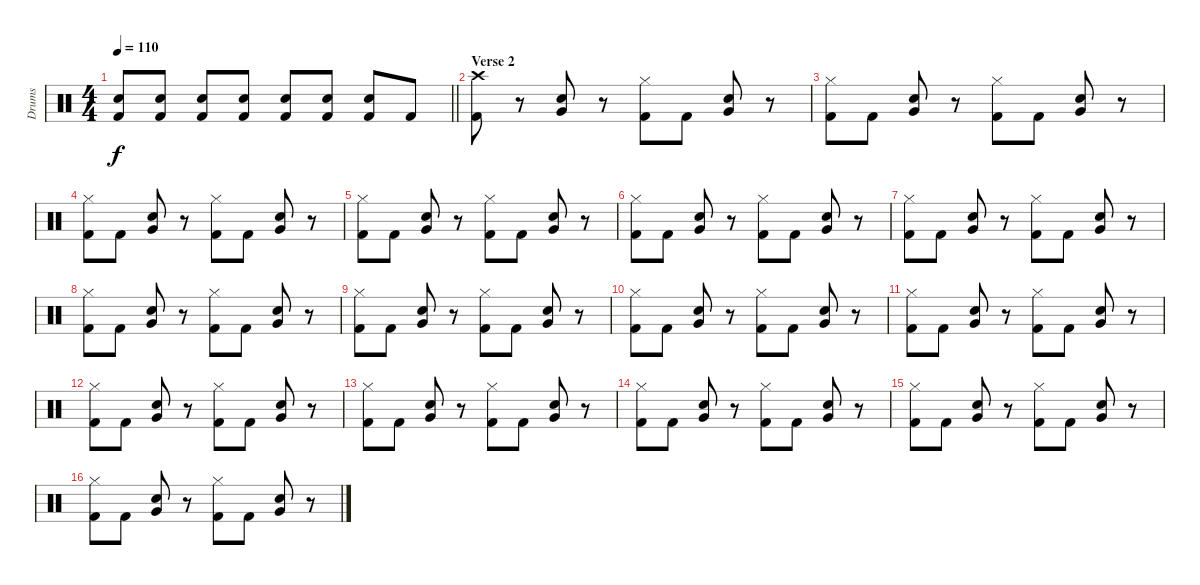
\track ("Drums" "Drums") {instrument percussion}
\staff {score}
\articulation defaults
\ts (4 4)
\tempo 110
\clef neutral
\barLineRight lightlight
\ks c
("Snare (hit) 2" "Kick (hit) 2").8{dy f volume 5} ("Snare (hit) 2" "Kick (hit) 2").8{volume 12} ("Snare (hit) 2" "Kick (hit) 2").8 ("Snare (hit) 2" "Kick (hit) 2").8 ("Snare (hit) 2" "Kick (hit) 2").8 ("Snare (hit) 2" "Kick (hit) 2").8 ("Snare (hit) 2" "Kick (hit) 2").8 "Kick (hit) 2".8 |
\section ("" "Verse 2")
("Crash high (hit)" "Kick (hit) 2").8{volume 12} r.8 ("Snare (hit) 2" "Very Low Tom (hit)").8 r.8 ("Hi-Hat (closed)" "Kick (hit) 2").8 "Kick (hit) 2".8 ("Snare (hit) 2" "Very Low Tom (hit)").8 r.8 |
("Hi-Hat (closed)" "Kick (hit) 2").8 "Kick (hit) 2".8 ("Snare (hit) 2" "Very Low Tom (hit)").8 r.8 ("Hi-Hat (closed)" "Kick (hit) 2").8 "Kick (hit) 2".8 ("Snare (hit) 2" "Very Low Tom (hit)").8 r.8 |
("Hi-Hat (closed)" "Kick (hit) 2").8 "Kick (hit) 2".8 ("Snare (hit) 2" "Very Low Tom (hit)").8 r.8 ("Hi-Hat (closed)" "Kick (hit) 2").8 "Kick (hit) 2".8 ("Snare (hit) 2" "Very Low Tom (hit)").8 r.8 |
("Hi-Hat (closed)" "Kick (hit) 2").8 "Kick (hit) 2".8 ("Snare (hit) 2" "Very Low Tom (hit)").8 r.8 ("Hi-Hat (closed)" "Kick (hit) 2").8 "Kick (hit) 2".8 ("Snare (hit) 2" "Very Low Tom (hit)").8 r.8 |
("Hi-Hat (closed)" "Kick (hit) 2").8 "Kick (hit) 2".8 ("Snare (hit) 2" "Very Low Tom (hit)").8 r.8 ("Hi-Hat (closed)" "Kick (hit) 2").8 "Kick (hit) 2".8 ("Snare (hit) 2" "Very Low Tom (hit)").8 r.8 |
("Hi-Hat (closed)" "Kick (hit) 2").8 "Kick (hit) 2".8 ("Snare (hit) 2" "Very Low Tom (hit)").8 r.8 ("Hi-Hat (closed)" "Kick (hit) 2").8 "Kick (hit) 2".8 ("Snare (hit) 2" "Very Low Tom (hit)").8 r.8 |
("Hi-Hat (closed)" "Kick (hit) 2").8 "Kick (hit) 2".8 ("Snare (hit) 2" "Very Low Tom (hit)").8 r.8 ("Hi-Hat (closed)" "Kick (hit) 2").8 "Kick (hit) 2".8 ("Snare (hit) 2" "Very Low Tom (hit)").8 r.8 |
("Hi-Hat (closed)" "Kick (hit) 2").8 "Kick (hit) 2".8 ("Snare (hit) 2" "Very Low Tom (hit)").8 r.8 ("Hi-Hat (closed)" "Kick (hit) 2").8 "Kick (hit) 2".8 ("Snare (hit) 2" "Very Low Tom (hit)").8 r.8 |
("Hi-Hat (closed)" "Kick (hit) 2").8 "Kick (hit) 2".8 ("Snare (hit) 2" "Very Low Tom (hit)").8 r.8 ("Hi-Hat (closed)" "Kick (hit) 2").8 "Kick (hit) 2".8 ("Snare (hit) 2" "Very Low Tom (hit)").8 r.8 |
("Hi-Hat (closed)" "Kick (hit) 2").8 "Kick (hit) 2".8 ("Snare (hit) 2" "Very Low Tom (hit)").8 r.8 ("Hi-Hat (closed)" "Kick (hit) 2").8 "Kick (hit) 2".8 ("Snare (hit) 2" "Very Low Tom (hit)").8 r.8 |
("Hi-Hat (closed)" "Kick (hit) 2").8 "Kick (hit) 2".8 ("Snare (hit) 2" "Very Low Tom (hit)").8 r.8 ("Hi-Hat (closed)" "Kick (hit) 2").8 "Kick (hit) 2".8 ("Snare (hit) 2" "Very Low Tom (hit)").8 r.8 |
("Hi-Hat (closed)" "Kick (hit) 2").8 "Kick (hit) 2".8 ("Snare (hit) 2" "Very Low Tom (hit)").8 r.8 ("Hi-Hat (closed)" "Kick (hit) 2").8 "Kick (hit) 2".8 ("Snare (hit) 2" "Very Low Tom (hit)").8 r.8 |
("Hi-Hat (closed)" "Kick (hit) 2").8 "Kick (hit) 2".8 ("Snare (hit) 2" "Very Low Tom (hit)").8 r.8 ("Hi-Hat (closed)" "Kick (hit) 2").8 "Kick (hit) 2".8 ("Snare (hit) 2" "Very Low Tom (hit)").8 r.8 |
("Hi-Hat (closed)" "Kick (hit) 2").8 "Kick (hit) 2".8 ("Snare (hit) 2" "Very Low Tom (hit)").8 r.8 ("Hi-Hat (closed)" "Kick (hit) 2").8 "Kick (hit) 2".8 ("Snare (hit) 2" "Very Low Tom (hit)").8 r.8 |
("Hi-Hat (closed)" "Kick (hit) 2").8 "Kick (hit) 2".8 ("Snare (hit) 2" "Very Low Tom (hit)").8 r.8 ("Hi-Hat (closed)" "Kick (hit) 2").8 "Kick (hit) 2".8 ("Snare (hit) 2" "Very Low Tom (hit)").8 r.8
